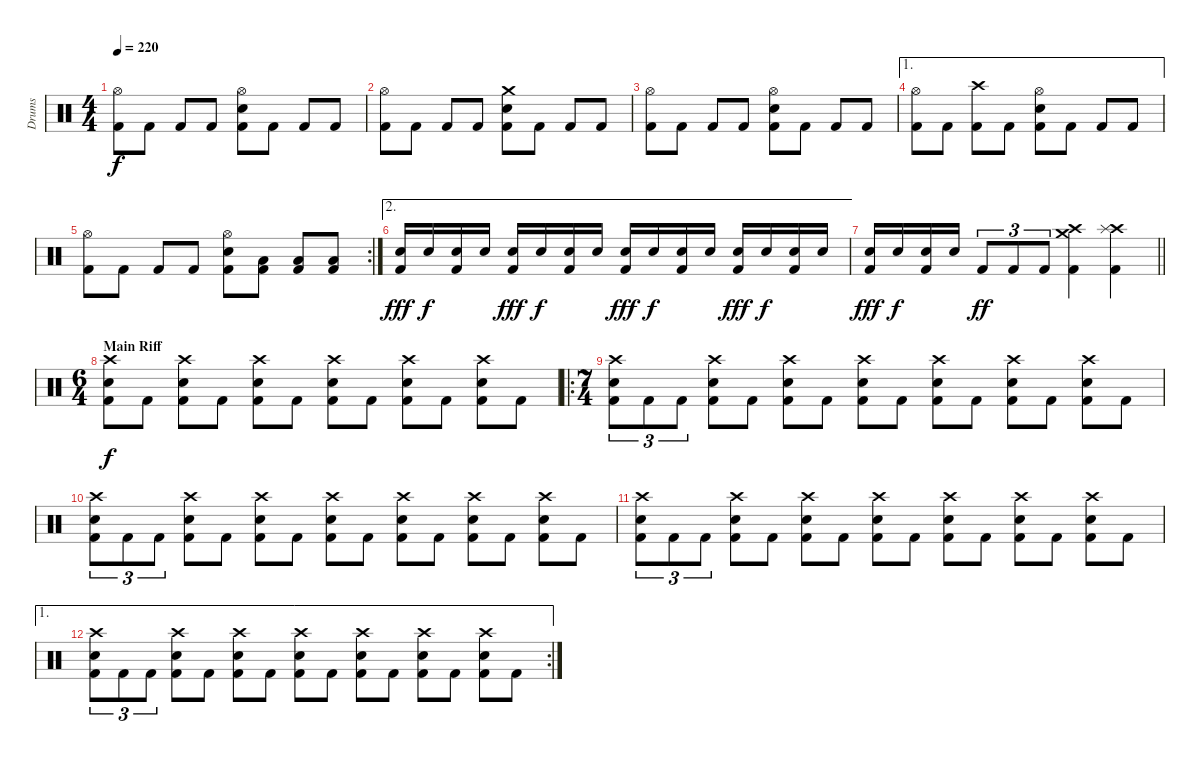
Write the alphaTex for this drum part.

\track ("Drums" "Drums") {instrument percussion}
\staff {score}
\articulation defaults
\ts (4 4)
\tempo 220
\clef neutral
\ks c
("Hi-Hat (open)" "Kick (hit) 2").8{dy f} "Kick (hit) 2".8 "Kick (hit) 2".8 "Kick (hit) 2".8 ("Hi-Hat (open)" "Electric Snare (hit)" "Kick (hit) 2").8 "Kick (hit) 2".8 "Kick (hit) 2".8 "Kick (hit) 2".8 |
("Hi-Hat (open)" "Kick (hit) 2").8 "Kick (hit) 2".8 "Kick (hit) 2".8 "Kick (hit) 2".8 ("Crash medium (hit)" "Electric Snare (hit)" "Kick (hit) 2").8 "Kick (hit) 2".8 "Kick (hit) 2".8 "Kick (hit) 2".8 |
("Hi-Hat (open)" "Kick (hit) 2").8 "Kick (hit) 2".8 "Kick (hit) 2".8 "Kick (hit) 2".8 ("Hi-Hat (open)" "Electric Snare (hit)" "Kick (hit) 2").8 "Kick (hit) 2".8 "Kick (hit) 2".8 "Kick (hit) 2".8 |
\ae 1
("Hi-Hat (open)" "Kick (hit) 2").8 "Kick (hit) 2".8 ("Crash high (hit)" "Kick (hit) 2").8 "Kick (hit) 2".8 ("Hi-Hat (open)" "Electric Snare (hit)" "Kick (hit) 2").8 "Kick (hit) 2".8 "Kick (hit) 2".8 "Kick (hit) 2".8 |
\rc 2
("Hi-Hat (open)" "Kick (hit) 2").8 "Kick (hit) 2".8 "Kick (hit) 2".8 "Kick (hit) 2".8 ("Hi-Hat (open)" "Electric Snare (hit)" "Kick (hit) 2").8 ("Low Tom (hit)" "Kick (hit) 2").8 ("Low Tom (hit)" "Kick (hit) 2").8 ("Low Floor Tom (hit)" "Kick (hit) 2").8 |
\ae 2
("Electric Snare (hit)" "Kick (hit) 2").16{dy fff} "Electric Snare (hit)".16{dy f} ("Electric Snare (hit)" "Kick (hit) 2").16 "Electric Snare (hit)".16 ("Electric Snare (hit)" "Kick (hit) 2").16{dy fff} "Electric Snare (hit)".16{dy f} ("Electric Snare (hit)" "Kick (hit) 2").16 "Electric Snare (hit)".16 ("Electric Snare (hit)" "Kick (hit) 2").16{dy fff} "Electric Snare (hit)".16{dy f} ("Electric Snare (hit)" "Kick (hit) 2").16 "Electric Snare (hit)".16 ("Electric Snare (hit)" "Kick (hit) 2").16{dy fff} "Electric Snare (hit)".16{dy f} ("Electric Snare (hit)" "Kick (hit) 2").16 "Electric Snare (hit)".16 |
\barLineRight lightlight
("Electric Snare (hit)" "Kick (hit) 2").16{dy fff} "Electric Snare (hit)".16{dy f} ("Electric Snare (hit)" "Kick (hit) 2").16 "Electric Snare (hit)".16 "Kick (hit) 2".8{tu (3 2) dy ff} "Kick (hit) 2".8{tu (3 2)} "Kick (hit) 2".8{tu (3 2)} ("Crash high (hit)" "Crash medium (hit)" "Kick (hit) 2").4 ("Crash high (hit)" "Splash (hit)" "Kick (hit) 2").4 |
\ts (6 4)
\section ("" "Main Riff")
("Crash high (hit)" "Electric Snare (hit)" "Kick (hit) 2").8{dy f} "Kick (hit) 2".8 ("Crash high (hit)" "Electric Snare (hit)" "Kick (hit) 2").8 "Kick (hit) 2".8 ("Crash high (hit)" "Electric Snare (hit)" "Kick (hit) 2").8 "Kick (hit) 2".8 ("Crash high (hit)" "Electric Snare (hit)" "Kick (hit) 2").8 "Kick (hit) 2".8 ("Crash high (hit)" "Electric Snare (hit)" "Kick (hit) 2").8 "Kick (hit) 2".8 ("Crash high (hit)" "Electric Snare (hit)" "Kick (hit) 2").8 "Kick (hit) 2".8 |
\ro
\ts (7 4)
("Crash high (hit)" "Electric Snare (hit)" "Kick (hit) 2").8{tu (3 2)} "Kick (hit) 2".8{tu (3 2)} "Kick (hit) 2".8{tu (3 2)} ("Crash high (hit)" "Electric Snare (hit)" "Kick (hit) 2").8 "Kick (hit) 2".8 ("Crash high (hit)" "Electric Snare (hit)" "Kick (hit) 2").8 "Kick (hit) 2".8 ("Crash high (hit)" "Electric Snare (hit)" "Kick (hit) 2").8 "Kick (hit) 2".8 ("Crash high (hit)" "Electric Snare (hit)" "Kick (hit) 2").8 "Kick (hit) 2".8 ("Crash high (hit)" "Electric Snare (hit)" "Kick (hit) 2").8 "Kick (hit) 2".8 ("Crash high (hit)" "Electric Snare (hit)" "Kick (hit) 2").8 "Kick (hit) 2".8 |
("Crash high (hit)" "Electric Snare (hit)" "Kick (hit) 2").8{tu (3 2)} "Kick (hit) 2".8{tu (3 2)} "Kick (hit) 2".8{tu (3 2)} ("Crash high (hit)" "Electric Snare (hit)" "Kick (hit) 2").8 "Kick (hit) 2".8 ("Crash high (hit)" "Electric Snare (hit)" "Kick (hit) 2").8 "Kick (hit) 2".8 ("Crash high (hit)" "Electric Snare (hit)" "Kick (hit) 2").8 "Kick (hit) 2".8 ("Crash high (hit)" "Electric Snare (hit)" "Kick (hit) 2").8 "Kick (hit) 2".8 ("Crash high (hit)" "Electric Snare (hit)" "Kick (hit) 2").8 "Kick (hit) 2".8 ("Crash high (hit)" "Electric Snare (hit)" "Kick (hit) 2").8 "Kick (hit) 2".8 |
("Crash high (hit)" "Electric Snare (hit)" "Kick (hit) 2").8{tu (3 2)} "Kick (hit) 2".8{tu (3 2)} "Kick (hit) 2".8{tu (3 2)} ("Crash high (hit)" "Electric Snare (hit)" "Kick (hit) 2").8 "Kick (hit) 2".8 ("Crash high (hit)" "Electric Snare (hit)" "Kick (hit) 2").8 "Kick (hit) 2".8 ("Crash high (hit)" "Electric Snare (hit)" "Kick (hit) 2").8 "Kick (hit) 2".8 ("Crash high (hit)" "Electric Snare (hit)" "Kick (hit) 2").8 "Kick (hit) 2".8 ("Crash high (hit)" "Electric Snare (hit)" "Kick (hit) 2").8 "Kick (hit) 2".8 ("Crash high (hit)" "Electric Snare (hit)" "Kick (hit) 2").8 "Kick (hit) 2".8 |
\ae 1
\rc 2
("Crash high (hit)" "Electric Snare (hit)" "Kick (hit) 2").8{tu (3 2)} "Kick (hit) 2".8{tu (3 2)} "Kick (hit) 2".8{tu (3 2)} ("Crash high (hit)" "Electric Snare (hit)" "Kick (hit) 2").8 "Kick (hit) 2".8 ("Crash high (hit)" "Electric Snare (hit)" "Kick (hit) 2").8 "Kick (hit) 2".8 ("Crash high (hit)" "Electric Snare (hit)" "Kick (hit) 2").8 "Kick (hit) 2".8 ("Crash high (hit)" "Electric Snare (hit)" "Kick (hit) 2").8 "Kick (hit) 2".8 ("Crash high (hit)" "Electric Snare (hit)" "Kick (hit) 2").8 "Kick (hit) 2".8 ("Crash high (hit)" "Electric Snare (hit)" "Kick (hit) 2").8 "Kick (hit) 2".8
